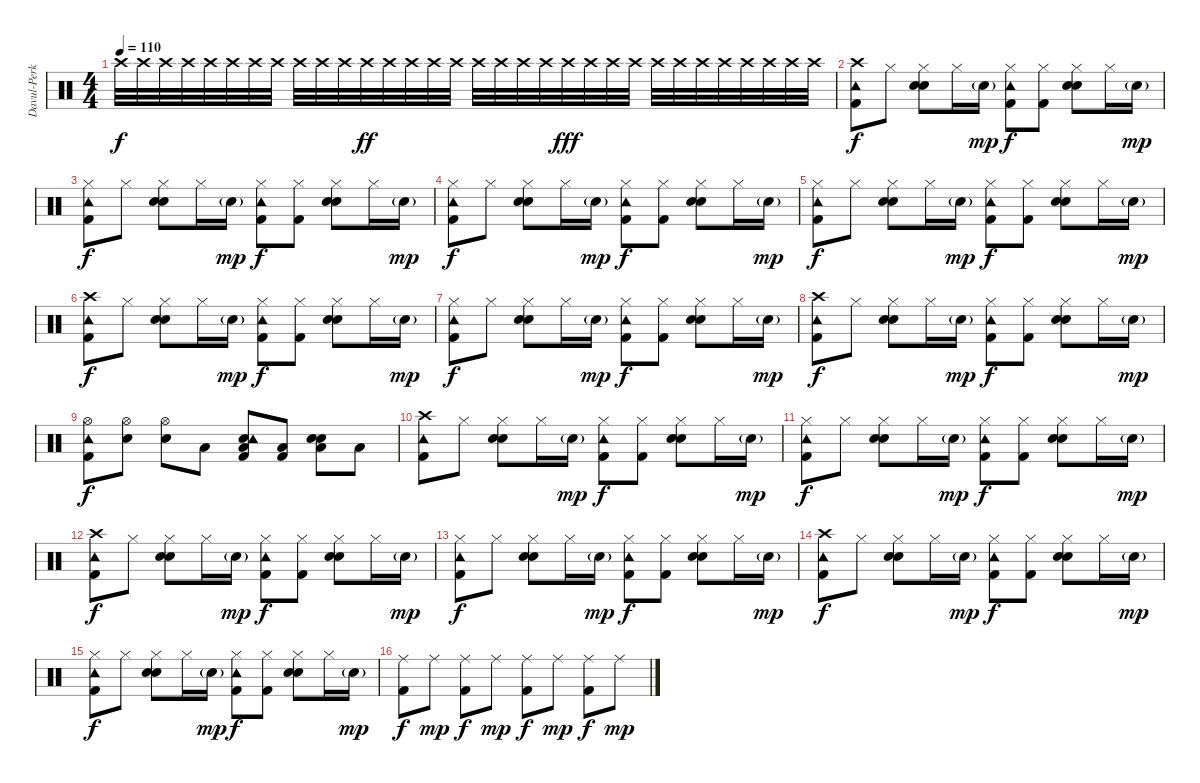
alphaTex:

\track ("Davul-Perküsyon" "Davul-Perk") {instrument percussion}
\staff {score}
\articulation defaults
\ts (4 4)
\tempo 110
\clef neutral
\ks c "Crash high (hit)".32{dy f volume 1} "Crash high (hit)".32 "Crash high (hit)".32{volume 2} "Crash high (hit)".32 "Crash high (hit)".32{volume 3} "Crash high (hit)".32 "Crash high (hit)".32{volume 4} "Crash high (hit)".32 "Crash high (hit)".32{volume 5} "Crash high (hit)".32 "Crash high (hit)".32{volume 6} "Crash high (hit)".32{dy ff} "Crash high (hit)".32{volume 7} "Crash high (hit)".32 "Crash high (hit)".32{volume 8} "Crash high (hit)".32 "Crash high (hit)".32{volume 9} "Crash high (hit)".32 "Crash high (hit)".32{volume 10} "Crash high (hit)".32 "Crash high (hit)".32{dy fff volume 11} "Crash high (hit)".32 "Crash high (hit)".32{volume 12} "Crash high (hit)".32 "Crash high (hit)".32{volume 13} "Crash high (hit)".32 "Crash high (hit)".32{volume 14} "Crash high (hit)".32 "Crash high (hit)".32{volume 15} "Crash high (hit)".32 "Crash high (hit)".32{volume 16} "Crash high (hit)".32
|
("Crash high (hit)" "Tambourine (hit)" "Kick (hit) 2").8{dy f} "Hi-Hat (closed)".8 ("Electric Snare (hit)" "Hi-Hat (closed)" "Hand Clap (hit)").8 "Hi-Hat (closed)".16 "Electric Snare (hit)"{g}.16{dy mp} ("Hi-Hat (closed)" "Tambourine (hit)" "Kick (hit) 2").8{dy f} ("Hi-Hat (closed)" "Kick (hit) 2").8 ("Electric Snare (hit)" "Hi-Hat (closed)" "Hand Clap (hit)").8 "Hi-Hat (closed)".16 "Electric Snare (hit)"{g}.16{dy mp} |
("Hi-Hat (closed)" "Tambourine (hit)" "Kick (hit) 2").8{dy f} "Hi-Hat (closed)".8 ("Electric Snare (hit)" "Hi-Hat (closed)" "Hand Clap (hit)").8 "Hi-Hat (closed)".16 "Electric Snare (hit)"{g}.16{dy mp} ("Hi-Hat (closed)" "Tambourine (hit)" "Kick (hit) 2").8{dy f} ("Hi-Hat (closed)" "Kick (hit) 2").8 ("Electric Snare (hit)" "Hi-Hat (closed)" "Hand Clap (hit)").8 "Hi-Hat (closed)".16 "Electric Snare (hit)"{g}.16{dy mp} |
("Hi-Hat (closed)" "Tambourine (hit)" "Kick (hit) 2").8{dy f} "Hi-Hat (closed)".8 ("Electric Snare (hit)" "Hi-Hat (closed)" "Hand Clap (hit)").8 "Hi-Hat (closed)".16 "Electric Snare (hit)"{g}.16{dy mp} ("Hi-Hat (closed)" "Tambourine (hit)" "Kick (hit) 2").8{dy f} ("Hi-Hat (closed)" "Kick (hit) 2").8 ("Electric Snare (hit)" "Hi-Hat (closed)" "Hand Clap (hit)").8 "Hi-Hat (closed)".16 "Electric Snare (hit)"{g}.16{dy mp} |
("Hi-Hat (closed)" "Tambourine (hit)" "Kick (hit) 2").8{dy f} "Hi-Hat (closed)".8 ("Electric Snare (hit)" "Hi-Hat (closed)" "Hand Clap (hit)").8 "Hi-Hat (closed)".16 "Electric Snare (hit)"{g}.16{dy mp} ("Hi-Hat (closed)" "Tambourine (hit)" "Kick (hit) 2").8{dy f} ("Hi-Hat (closed)" "Kick (hit) 2").8 ("Electric Snare (hit)" "Hi-Hat (closed)" "Hand Clap (hit)").8 "Hi-Hat (closed)".16 "Electric Snare (hit)"{g}.16{dy mp} |
("Crash high (hit)" "Tambourine (hit)" "Kick (hit) 2").8{dy f} "Hi-Hat (closed)".8 ("Electric Snare (hit)" "Hi-Hat (closed)" "Hand Clap (hit)").8 "Hi-Hat (closed)".16 "Electric Snare (hit)"{g}.16{dy mp} ("Hi-Hat (closed)" "Tambourine (hit)" "Kick (hit) 2").8{dy f} ("Hi-Hat (closed)" "Kick (hit) 2").8 ("Electric Snare (hit)" "Hi-Hat (closed)" "Hand Clap (hit)").8 "Hi-Hat (closed)".16 "Electric Snare (hit)"{g}.16{dy mp} |
("Hi-Hat (closed)" "Tambourine (hit)" "Kick (hit) 2").8{dy f} "Hi-Hat (closed)".8 ("Electric Snare (hit)" "Hi-Hat (closed)" "Hand Clap (hit)").8 "Hi-Hat (closed)".16 "Electric Snare (hit)"{g}.16{dy mp} ("Hi-Hat (closed)" "Tambourine (hit)" "Kick (hit) 2").8{dy f} ("Hi-Hat (closed)" "Kick (hit) 2").8 ("Electric Snare (hit)" "Hi-Hat (closed)" "Hand Clap (hit)").8 "Hi-Hat (closed)".16 "Electric Snare (hit)"{g}.16{dy mp} |
("Crash high (hit)" "Tambourine (hit)" "Kick (hit) 2").8{dy f} "Hi-Hat (closed)".8 ("Electric Snare (hit)" "Hi-Hat (closed)" "Hand Clap (hit)").8 "Hi-Hat (closed)".16 "Electric Snare (hit)"{g}.16{dy mp} ("Hi-Hat (closed)" "Tambourine (hit)" "Kick (hit) 2").8{dy f} ("Hi-Hat (closed)" "Kick (hit) 2").8 ("Electric Snare (hit)" "Hi-Hat (closed)" "Hand Clap (hit)").8 "Hi-Hat (closed)".16 "Electric Snare (hit)"{g}.16{dy mp} |
("Hi-Hat (open)" "Tambourine (hit)" "Kick (hit) 2").8{dy f} ("Electric Snare (hit)" "Hi-Hat (open)").8 ("Hi-Hat (open)" "Hand Clap (hit)").8 "Low Tom (hit)".8 ("Electric Snare (hit)" "Low Tom (hit)" "Tambourine (hit)" "Kick (hit) 2").8 ("Low Tom (hit)" "Kick (hit) 2").8 ("Electric Snare (hit)" "Low Tom (hit)" "Hand Clap (hit)").8 "Low Tom (hit)".8 |
("Crash high (hit)" "Tambourine (hit)" "Kick (hit) 2").8 "Hi-Hat (closed)".8 ("Electric Snare (hit)" "Hi-Hat (closed)" "Hand Clap (hit)").8 "Hi-Hat (closed)".16 "Electric Snare (hit)"{g}.16{dy mp} ("Hi-Hat (closed)" "Tambourine (hit)" "Kick (hit) 2").8{dy f} ("Hi-Hat (closed)" "Kick (hit) 2").8 ("Electric Snare (hit)" "Hi-Hat (closed)" "Hand Clap (hit)").8 "Hi-Hat (closed)".16 "Electric Snare (hit)"{g}.16{dy mp} |
("Hi-Hat (closed)" "Tambourine (hit)" "Kick (hit) 2").8{dy f} "Hi-Hat (closed)".8 ("Electric Snare (hit)" "Hi-Hat (closed)" "Hand Clap (hit)").8 "Hi-Hat (closed)".16 "Electric Snare (hit)"{g}.16{dy mp} ("Hi-Hat (closed)" "Tambourine (hit)" "Kick (hit) 2").8{dy f} ("Hi-Hat (closed)" "Kick (hit) 2").8 ("Electric Snare (hit)" "Hi-Hat (closed)" "Hand Clap (hit)").8 "Hi-Hat (closed)".16 "Electric Snare (hit)"{g}.16{dy mp} |
("Crash high (hit)" "Tambourine (hit)" "Kick (hit) 2").8{dy f} "Hi-Hat (closed)".8 ("Electric Snare (hit)" "Hi-Hat (closed)" "Hand Clap (hit)").8 "Hi-Hat (closed)".16 "Electric Snare (hit)"{g}.16{dy mp} ("Hi-Hat (closed)" "Tambourine (hit)" "Kick (hit) 2").8{dy f} ("Hi-Hat (closed)" "Kick (hit) 2").8 ("Electric Snare (hit)" "Hi-Hat (closed)" "Hand Clap (hit)").8 "Hi-Hat (closed)".16 "Electric Snare (hit)"{g}.16{dy mp} |
("Hi-Hat (closed)" "Tambourine (hit)" "Kick (hit) 2").8{dy f} "Hi-Hat (closed)".8 ("Electric Snare (hit)" "Hi-Hat (closed)" "Hand Clap (hit)").8 "Hi-Hat (closed)".16 "Electric Snare (hit)"{g}.16{dy mp} ("Hi-Hat (closed)" "Tambourine (hit)" "Kick (hit) 2").8{dy f} ("Hi-Hat (closed)" "Kick (hit) 2").8 ("Electric Snare (hit)" "Hi-Hat (closed)" "Hand Clap (hit)").8 "Hi-Hat (closed)".16 "Electric Snare (hit)"{g}.16{dy mp} |
("Crash high (hit)" "Tambourine (hit)" "Kick (hit) 2").8{dy f} "Hi-Hat (closed)".8 ("Electric Snare (hit)" "Hi-Hat (closed)" "Hand Clap (hit)").8 "Hi-Hat (closed)".16 "Electric Snare (hit)"{g}.16{dy mp} ("Hi-Hat (closed)" "Tambourine (hit)" "Kick (hit) 2").8{dy f} ("Hi-Hat (closed)" "Kick (hit) 2").8 ("Electric Snare (hit)" "Hi-Hat (closed)" "Hand Clap (hit)").8 "Hi-Hat (closed)".16 "Electric Snare (hit)"{g}.16{dy mp} |
("Hi-Hat (closed)" "Tambourine (hit)" "Kick (hit) 2").8{dy f} "Hi-Hat (closed)".8 ("Electric Snare (hit)" "Hi-Hat (closed)" "Hand Clap (hit)").8 "Hi-Hat (closed)".16 "Electric Snare (hit)"{g}.16{dy mp} ("Hi-Hat (closed)" "Tambourine (hit)" "Kick (hit) 2").8{dy f} ("Hi-Hat (closed)" "Kick (hit) 2").8 ("Electric Snare (hit)" "Hi-Hat (closed)" "Hand Clap (hit)").8 "Hi-Hat (closed)".16 "Electric Snare (hit)"{g}.16{dy mp} |
("Ride (middle)" "Kick (hit) 2").8{dy f} "Ride (middle)".8{dy mp} ("Ride (middle)" "Kick (hit) 2").8{dy f} "Ride (middle)".8{dy mp} ("Ride (middle)" "Kick (hit) 2").8{dy f} "Ride (middle)".8{dy mp} ("Ride (middle)" "Kick (hit) 2").8{dy f} "Ride (middle)".8{dy mp}
